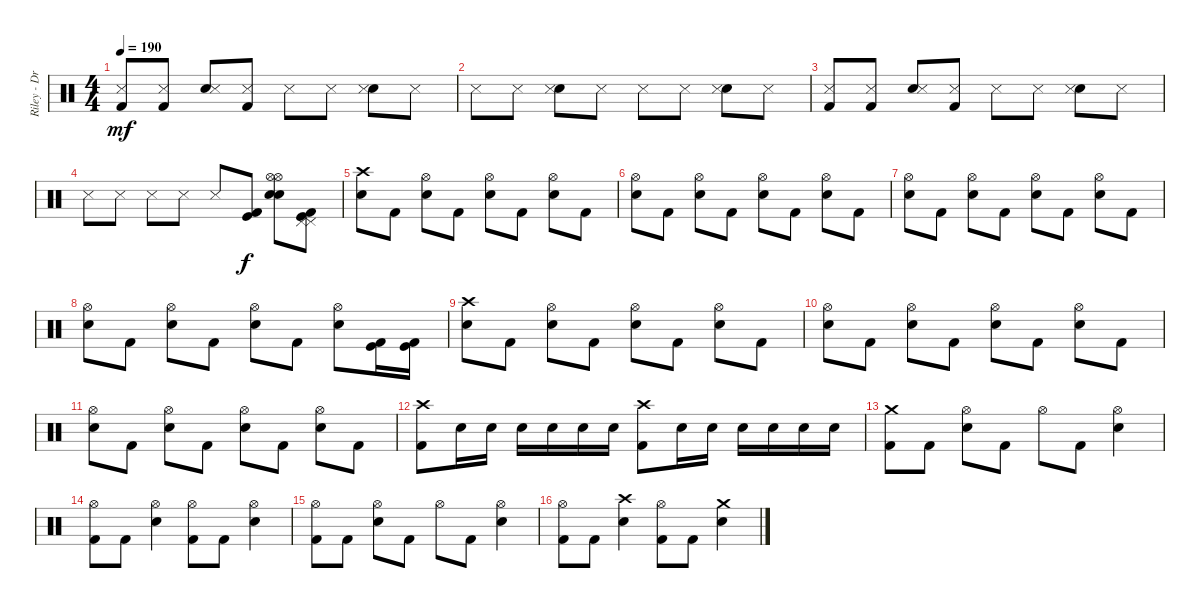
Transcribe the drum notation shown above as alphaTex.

\track ("Riley - Drums" "Riley - Dr") {instrument percussion}
\staff {score}
\articulation defaults
\ts (4 4)
\tempo 190
\clef neutral
\ks c
("Kick (hit) 2" "Snare (side stick) 3").8{dy mf} ("Kick (hit) 2" "Snare (side stick) 3").8 ("Electric Snare (hit)" "Snare (side stick) 3").8 ("Kick (hit) 2" "Snare (side stick) 3").8 "Snare (side stick) 3".8 "Snare (side stick) 3".8 ("Electric Snare (hit)" "Snare (side stick) 3").8 "Snare (side stick) 3".8 |
"Snare (side stick) 3".8 "Snare (side stick) 3".8 ("Electric Snare (hit)" "Snare (side stick) 3").8 "Snare (side stick) 3".8 "Snare (side stick) 3".8 "Snare (side stick) 3".8 ("Electric Snare (hit)" "Snare (side stick) 3").8 "Snare (side stick) 3".8 |
("Kick (hit) 2" "Snare (side stick) 3").8 ("Kick (hit) 2" "Snare (side stick) 3").8 ("Electric Snare (hit)" "Snare (side stick) 3").8 ("Kick (hit) 2" "Snare (side stick) 3").8 "Snare (side stick) 3".8 "Snare (side stick) 3".8 ("Electric Snare (hit)" "Snare (side stick) 3").8 "Snare (side stick) 3".8 |
"Snare (side stick) 3".8 "Snare (side stick) 3".8 "Snare (side stick) 3".8 "Snare (side stick) 3".8 "Snare (side stick) 3".8 ("Kick (hit) 2" "Kick (hit)").8{dy f} ("Electric Snare (hit)" "Electric Snare (hit)" "Hi-Hat (open)" "Hi-Hat (open)").8 ("Kick (hit) 2" "Kick (hit)" "Pedal Hi-Hat (hit)" "Pedal Hi-Hat (hit)").8 |
("Electric Snare (hit)" "Crash high (hit)").8 "Kick (hit) 2".8 ("Electric Snare (hit)" "Hi-Hat (open)").8 "Kick (hit) 2".8 ("Electric Snare (hit)" "Hi-Hat (open)").8 "Kick (hit) 2".8 ("Electric Snare (hit)" "Hi-Hat (open)").8 "Kick (hit) 2".8 |
("Electric Snare (hit)" "Hi-Hat (open)").8 "Kick (hit) 2".8 ("Electric Snare (hit)" "Hi-Hat (open)").8 "Kick (hit) 2".8 ("Electric Snare (hit)" "Hi-Hat (open)").8 "Kick (hit) 2".8 ("Electric Snare (hit)" "Hi-Hat (open)").8 "Kick (hit) 2".8 |
("Electric Snare (hit)" "Hi-Hat (open)").8 "Kick (hit) 2".8 ("Electric Snare (hit)" "Hi-Hat (open)").8 "Kick (hit) 2".8 ("Electric Snare (hit)" "Hi-Hat (open)").8 "Kick (hit) 2".8 ("Electric Snare (hit)" "Hi-Hat (open)").8 "Kick (hit) 2".8 |
("Electric Snare (hit)" "Hi-Hat (open)").8 "Kick (hit) 2".8 ("Electric Snare (hit)" "Hi-Hat (open)").8 "Kick (hit) 2".8 ("Electric Snare (hit)" "Hi-Hat (open)").8 "Kick (hit) 2".8 ("Electric Snare (hit)" "Hi-Hat (open)").8 ("Kick (hit) 2" "Kick (hit)").16 ("Kick (hit) 2" "Kick (hit)").16 |
("Electric Snare (hit)" "Crash high (hit)").8 "Kick (hit) 2".8 ("Electric Snare (hit)" "Hi-Hat (open)").8 "Kick (hit) 2".8 ("Electric Snare (hit)" "Hi-Hat (open)").8 "Kick (hit) 2".8 ("Electric Snare (hit)" "Hi-Hat (open)").8 "Kick (hit) 2".8 |
("Electric Snare (hit)" "Hi-Hat (open)").8 "Kick (hit) 2".8 ("Electric Snare (hit)" "Hi-Hat (open)").8 "Kick (hit) 2".8 ("Electric Snare (hit)" "Hi-Hat (open)").8 "Kick (hit) 2".8 ("Electric Snare (hit)" "Hi-Hat (open)").8 "Kick (hit) 2".8 |
("Electric Snare (hit)" "Hi-Hat (open)").8 "Kick (hit) 2".8 ("Electric Snare (hit)" "Hi-Hat (open)").8 "Kick (hit) 2".8 ("Electric Snare (hit)" "Hi-Hat (open)").8 "Kick (hit) 2".8 ("Electric Snare (hit)" "Hi-Hat (open)").8 "Kick (hit) 2".8 |
("Kick (hit) 2" "Crash high (hit)").8 "Electric Snare (hit)".16 "Electric Snare (hit)".16 "Electric Snare (hit)".16 "Electric Snare (hit)".16 "Electric Snare (hit)".16 "Electric Snare (hit)".16 ("Kick (hit) 2" "Crash high (hit)").8 "Electric Snare (hit)".16 "Electric Snare (hit)".16 "Electric Snare (hit)".16 "Electric Snare (hit)".16 "Electric Snare (hit)".16 "Electric Snare (hit)".16 |
("Kick (hit) 2" "Crash medium (hit)").8 "Kick (hit) 2".8 ("Electric Snare (hit)" "Hi-Hat (open)").8 "Kick (hit) 2".8 "Hi-Hat (open)".8 "Kick (hit) 2".8 ("Electric Snare (hit)" "Hi-Hat (open)").4 |
("Kick (hit) 2" "Hi-Hat (open)").8 "Kick (hit) 2".8 ("Electric Snare (hit)" "Hi-Hat (open)").4 ("Kick (hit) 2" "Hi-Hat (open)").8 "Kick (hit) 2".8 ("Electric Snare (hit)" "Hi-Hat (open)").4 |
("Kick (hit) 2" "Hi-Hat (open)").8 "Kick (hit) 2".8 ("Electric Snare (hit)" "Hi-Hat (open)").8 "Kick (hit) 2".8 "Hi-Hat (open)".8 "Kick (hit) 2".8 ("Electric Snare (hit)" "Hi-Hat (open)").4 |
("Kick (hit) 2" "Hi-Hat (open)").8 "Kick (hit) 2".8 ("Electric Snare (hit)" "Crash high (hit)").4 ("Kick (hit) 2" "Hi-Hat (open)").8 "Kick (hit) 2".8 ("Electric Snare (hit)" "Crash medium (hit)").4
